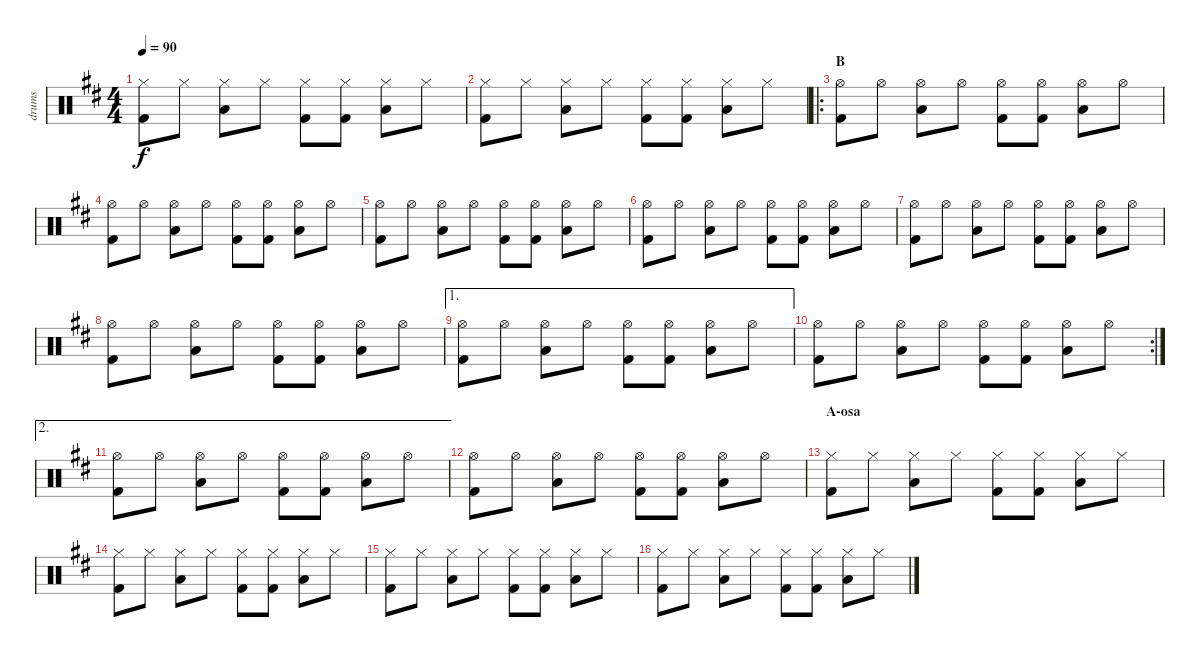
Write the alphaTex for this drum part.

\track ("drums" "drums") {instrument percussion}
\staff {score}
\articulation defaults
\ts (4 4)
\tempo 90
\clef neutral
\ks d
("Hi-Hat (closed)" "Kick (hit) 2").8{dy f} "Hi-Hat (closed)".8 ("Hi-Hat (closed)" "Low Tom (hit)").8 "Hi-Hat (closed)".8 ("Hi-Hat (closed)" "Kick (hit) 2").8 ("Hi-Hat (closed)" "Kick (hit) 2").8 ("Hi-Hat (closed)" "Low Tom (hit)").8 "Hi-Hat (closed)".8 |
("Hi-Hat (closed)" "Kick (hit) 2").8 "Hi-Hat (closed)".8 ("Hi-Hat (closed)" "Low Tom (hit)").8 "Hi-Hat (closed)".8 ("Hi-Hat (closed)" "Kick (hit) 2").8 ("Hi-Hat (closed)" "Kick (hit) 2").8 ("Hi-Hat (closed)" "Low Tom (hit)").8 "Hi-Hat (closed)".8 |
\ro
\section ("" "B")
("Hi-Hat (open)" "Kick (hit) 2").8 "Hi-Hat (open)".8 ("Hi-Hat (open)" "Low Tom (hit)").8 "Hi-Hat (open)".8 ("Hi-Hat (open)" "Kick (hit) 2").8 ("Hi-Hat (open)" "Kick (hit) 2").8 ("Hi-Hat (open)" "Low Tom (hit)").8 "Hi-Hat (open)".8 |
("Hi-Hat (open)" "Kick (hit) 2").8 "Hi-Hat (open)".8 ("Hi-Hat (open)" "Low Tom (hit)").8 "Hi-Hat (open)".8 ("Hi-Hat (open)" "Kick (hit) 2").8 ("Hi-Hat (open)" "Kick (hit) 2").8 ("Hi-Hat (open)" "Low Tom (hit)").8 "Hi-Hat (open)".8 |
("Hi-Hat (open)" "Kick (hit) 2").8 "Hi-Hat (open)".8 ("Hi-Hat (open)" "Low Tom (hit)").8 "Hi-Hat (open)".8 ("Hi-Hat (open)" "Kick (hit) 2").8 ("Hi-Hat (open)" "Kick (hit) 2").8 ("Hi-Hat (open)" "Low Tom (hit)").8 "Hi-Hat (open)".8 |
("Hi-Hat (open)" "Kick (hit) 2").8 "Hi-Hat (open)".8 ("Hi-Hat (open)" "Low Tom (hit)").8 "Hi-Hat (open)".8 ("Hi-Hat (open)" "Kick (hit) 2").8 ("Hi-Hat (open)" "Kick (hit) 2").8 ("Hi-Hat (open)" "Low Tom (hit)").8 "Hi-Hat (open)".8 |
("Hi-Hat (open)" "Kick (hit) 2").8 "Hi-Hat (open)".8 ("Hi-Hat (open)" "Low Tom (hit)").8 "Hi-Hat (open)".8 ("Hi-Hat (open)" "Kick (hit) 2").8 ("Hi-Hat (open)" "Kick (hit) 2").8 ("Hi-Hat (open)" "Low Tom (hit)").8 "Hi-Hat (open)".8 |
("Hi-Hat (open)" "Kick (hit) 2").8 "Hi-Hat (open)".8 ("Hi-Hat (open)" "Low Tom (hit)").8 "Hi-Hat (open)".8 ("Hi-Hat (open)" "Kick (hit) 2").8 ("Hi-Hat (open)" "Kick (hit) 2").8 ("Hi-Hat (open)" "Low Tom (hit)").8 "Hi-Hat (open)".8 |
\ae 1
("Hi-Hat (open)" "Kick (hit) 2").8 "Hi-Hat (open)".8 ("Hi-Hat (open)" "Low Tom (hit)").8 "Hi-Hat (open)".8 ("Hi-Hat (open)" "Kick (hit) 2").8 ("Hi-Hat (open)" "Kick (hit) 2").8 ("Hi-Hat (open)" "Low Tom (hit)").8 "Hi-Hat (open)".8 |
\rc 2
("Hi-Hat (open)" "Kick (hit) 2").8 "Hi-Hat (open)".8 ("Hi-Hat (open)" "Low Tom (hit)").8 "Hi-Hat (open)".8 ("Hi-Hat (open)" "Kick (hit) 2").8 ("Hi-Hat (open)" "Kick (hit) 2").8 ("Hi-Hat (open)" "Low Tom (hit)").8 "Hi-Hat (open)".8 |
\ae 2
("Hi-Hat (open)" "Kick (hit) 2").8 "Hi-Hat (open)".8 ("Hi-Hat (open)" "Low Tom (hit)").8 "Hi-Hat (open)".8 ("Hi-Hat (open)" "Kick (hit) 2").8 ("Hi-Hat (open)" "Kick (hit) 2").8 ("Hi-Hat (open)" "Low Tom (hit)").8 "Hi-Hat (open)".8 |
("Hi-Hat (open)" "Kick (hit) 2").8 "Hi-Hat (open)".8 ("Hi-Hat (open)" "Low Tom (hit)").8 "Hi-Hat (open)".8 ("Hi-Hat (open)" "Kick (hit) 2").8 ("Hi-Hat (open)" "Kick (hit) 2").8 ("Hi-Hat (open)" "Low Tom (hit)").8 "Hi-Hat (open)".8 |
\section ("" "A-osa")
("Hi-Hat (closed)" "Kick (hit) 2").8 "Hi-Hat (closed)".8 ("Hi-Hat (closed)" "Low Tom (hit)").8 "Hi-Hat (closed)".8 ("Hi-Hat (closed)" "Kick (hit) 2").8 ("Hi-Hat (closed)" "Kick (hit) 2").8 ("Hi-Hat (closed)" "Low Tom (hit)").8 "Hi-Hat (closed)".8 |
("Hi-Hat (closed)" "Kick (hit) 2").8 "Hi-Hat (closed)".8 ("Hi-Hat (closed)" "Low Tom (hit)").8 "Hi-Hat (closed)".8 ("Hi-Hat (closed)" "Kick (hit) 2").8 ("Hi-Hat (closed)" "Kick (hit) 2").8 ("Hi-Hat (closed)" "Low Tom (hit)").8 "Hi-Hat (closed)".8 |
("Hi-Hat (closed)" "Kick (hit) 2").8 "Hi-Hat (closed)".8 ("Hi-Hat (closed)" "Low Tom (hit)").8 "Hi-Hat (closed)".8 ("Hi-Hat (closed)" "Kick (hit) 2").8 ("Hi-Hat (closed)" "Kick (hit) 2").8 ("Hi-Hat (closed)" "Low Tom (hit)").8 "Hi-Hat (closed)".8 |
("Hi-Hat (closed)" "Kick (hit) 2").8 "Hi-Hat (closed)".8 ("Hi-Hat (closed)" "Low Tom (hit)").8 "Hi-Hat (closed)".8 ("Hi-Hat (closed)" "Kick (hit) 2").8 ("Hi-Hat (closed)" "Kick (hit) 2").8 ("Hi-Hat (closed)" "Low Tom (hit)").8 "Hi-Hat (closed)".8
